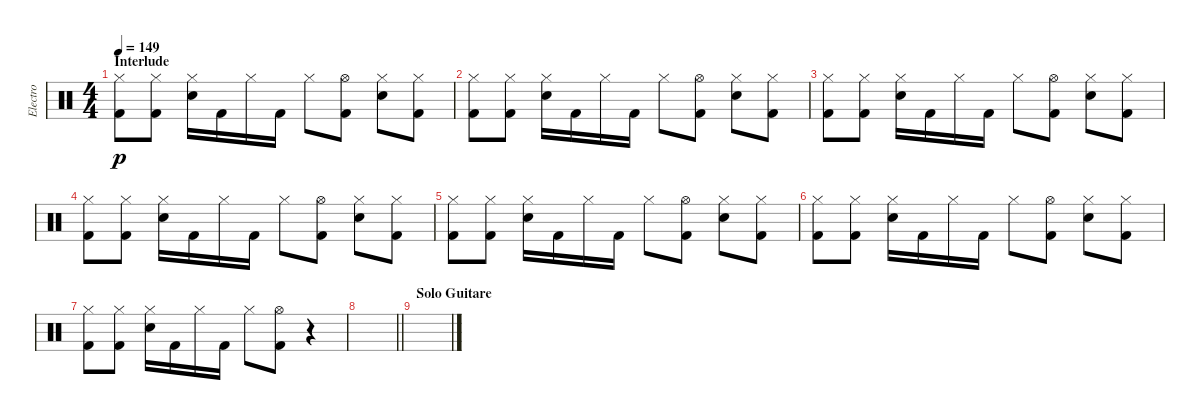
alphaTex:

\track ("Electro" "Electro") {instrument percussion}
\staff {score}
\articulation defaults
\ts (4 4)
\section ("" "Interlude")
\tempo 149
\clef neutral
\ks c
("Hi-Hat (closed)" "Kick (hit) 2").8{dy p} ("Hi-Hat (closed)" "Kick (hit) 2").8 ("Hi-Hat (closed)" "Electric Snare (hit)").16 "Kick (hit) 2".16 "Hi-Hat (closed)".16 "Kick (hit) 2".16 "Hi-Hat (closed)".8 ("Hi-Hat (open)" "Kick (hit) 2").8 ("Hi-Hat (closed)" "Electric Snare (hit)").8 ("Hi-Hat (closed)" "Kick (hit) 2").8 |
("Hi-Hat (closed)" "Kick (hit) 2").8 ("Hi-Hat (closed)" "Kick (hit) 2").8 ("Hi-Hat (closed)" "Electric Snare (hit)").16 "Kick (hit) 2".16 "Hi-Hat (closed)".16 "Kick (hit) 2".16 "Hi-Hat (closed)".8 ("Hi-Hat (open)" "Kick (hit) 2").8 ("Hi-Hat (closed)" "Electric Snare (hit)").8 ("Hi-Hat (closed)" "Kick (hit) 2").8 |
("Hi-Hat (closed)" "Kick (hit) 2").8 ("Hi-Hat (closed)" "Kick (hit) 2").8 ("Hi-Hat (closed)" "Electric Snare (hit)").16 "Kick (hit) 2".16 "Hi-Hat (closed)".16 "Kick (hit) 2".16 "Hi-Hat (closed)".8 ("Hi-Hat (open)" "Kick (hit) 2").8 ("Hi-Hat (closed)" "Electric Snare (hit)").8 ("Hi-Hat (closed)" "Kick (hit) 2").8 |
("Hi-Hat (closed)" "Kick (hit) 2").8 ("Hi-Hat (closed)" "Kick (hit) 2").8 ("Hi-Hat (closed)" "Electric Snare (hit)").16 "Kick (hit) 2".16 "Hi-Hat (closed)".16 "Kick (hit) 2".16 "Hi-Hat (closed)".8 ("Hi-Hat (open)" "Kick (hit) 2").8 ("Hi-Hat (closed)" "Electric Snare (hit)").8 ("Hi-Hat (closed)" "Kick (hit) 2").8 |
("Hi-Hat (closed)" "Kick (hit) 2").8 ("Hi-Hat (closed)" "Kick (hit) 2").8 ("Hi-Hat (closed)" "Electric Snare (hit)").16 "Kick (hit) 2".16 "Hi-Hat (closed)".16 "Kick (hit) 2".16 "Hi-Hat (closed)".8 ("Hi-Hat (open)" "Kick (hit) 2").8 ("Hi-Hat (closed)" "Electric Snare (hit)").8 ("Hi-Hat (closed)" "Kick (hit) 2").8 |
("Hi-Hat (closed)" "Kick (hit) 2").8 ("Hi-Hat (closed)" "Kick (hit) 2").8 ("Hi-Hat (closed)" "Electric Snare (hit)").16 "Kick (hit) 2".16 "Hi-Hat (closed)".16 "Kick (hit) 2".16 "Hi-Hat (closed)".8 ("Hi-Hat (open)" "Kick (hit) 2").8 ("Hi-Hat (closed)" "Electric Snare (hit)").8 ("Hi-Hat (closed)" "Kick (hit) 2").8 |
("Hi-Hat (closed)" "Kick (hit) 2").8 ("Hi-Hat (closed)" "Kick (hit) 2").8 ("Hi-Hat (closed)" "Electric Snare (hit)").16 "Kick (hit) 2".16 "Hi-Hat (closed)".16 "Kick (hit) 2".16 "Hi-Hat (closed)".8 ("Hi-Hat (open)" "Kick (hit) 2").8 r.4 |
\barLineRight lightlight
|
\section ("" "Solo Guitare")
